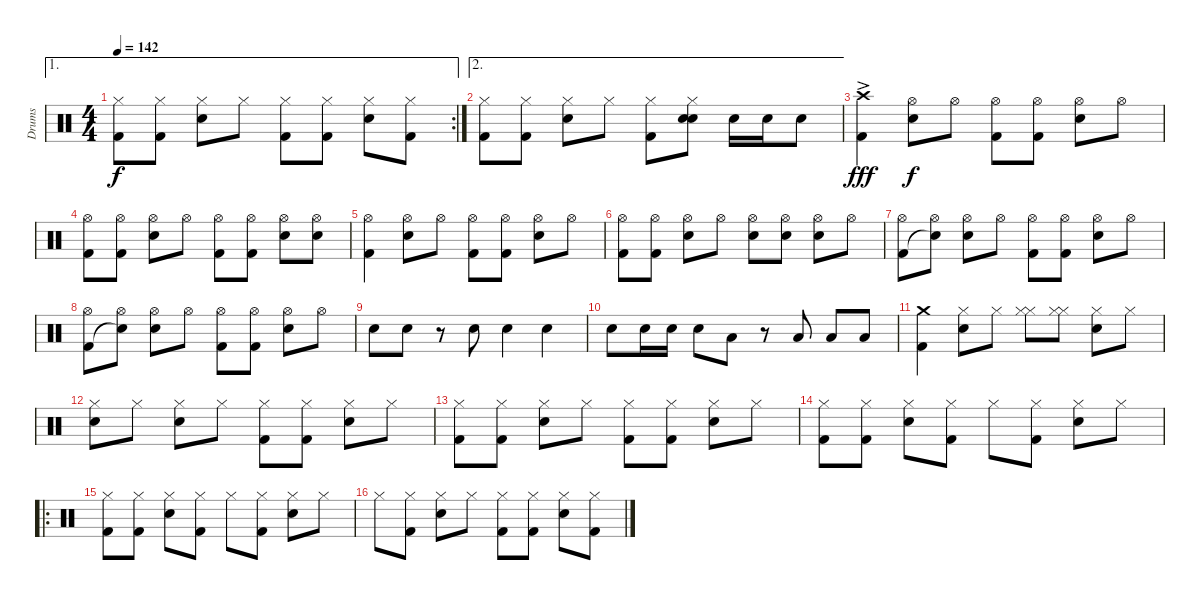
\track ("Drums" "Drums") {instrument percussion}
\staff {score}
\articulation defaults
\ae 1
\rc 2
\ts (4 4)
\tempo 142
\clef neutral
\ks c
("Hi-Hat (closed)" "Kick (hit) 2").8{dy f} ("Hi-Hat (closed)" "Kick (hit) 2").8 ("Hi-Hat (closed)" "Snare (hit) 2").8 "Hi-Hat (closed)".8 ("Hi-Hat (closed)" "Kick (hit) 2").8 ("Hi-Hat (closed)" "Kick (hit) 2").8 ("Hi-Hat (closed)" "Snare (hit) 2").8 ("Hi-Hat (closed)" "Kick (hit) 2").8 |
\ae 2
("Hi-Hat (closed)" "Kick (hit) 2").8 ("Hi-Hat (closed)" "Kick (hit) 2").8 ("Hi-Hat (closed)" "Snare (hit) 2").8 "Hi-Hat (closed)".8 ("Hi-Hat (closed)" "Kick (hit) 2").8 ("Hi-Hat (closed)" "Snare (hit) 2" "Snare (hit)").8 "Snare (hit) 2".16 "Snare (hit) 2".16 "Snare (hit) 2".8 |
("Crash high (hit)"{ac} "Kick (hit) 2"{ac}).4{dy fff} ("Hi-Hat (open)" "Snare (hit) 2").8{dy f} "Hi-Hat (open)".8 ("Hi-Hat (open)" "Kick (hit) 2").8 ("Hi-Hat (open)" "Kick (hit) 2").8 ("Hi-Hat (open)" "Snare (hit) 2").8 "Hi-Hat (open)".8 |
("Hi-Hat (open)" "Kick (hit) 2").8 ("Hi-Hat (open)" "Kick (hit) 2").8 ("Hi-Hat (open)" "Snare (hit) 2").8 "Hi-Hat (open)".8 ("Hi-Hat (open)" "Kick (hit) 2").8 ("Hi-Hat (open)" "Kick (hit) 2").8 ("Hi-Hat (open)" "Snare (hit) 2").8 ("Hi-Hat (open)" "Snare (hit) 2").8 |
("Hi-Hat (open)" "Kick (hit) 2").4 ("Hi-Hat (open)" "Snare (hit) 2").8 "Hi-Hat (open)".8 ("Hi-Hat (open)" "Kick (hit) 2").8 ("Hi-Hat (open)" "Kick (hit) 2").8 ("Hi-Hat (open)" "Snare (hit) 2").8 "Hi-Hat (open)".8 |
("Hi-Hat (open)" "Kick (hit) 2").8 ("Hi-Hat (open)" "Kick (hit) 2").8 ("Hi-Hat (open)" "Snare (hit) 2").8 "Hi-Hat (open)".8 ("Hi-Hat (open)" "Snare (hit) 2").8 ("Hi-Hat (open)" "Snare (hit) 2").8 ("Hi-Hat (open)" "Snare (hit) 2").8 "Hi-Hat (open)".8 |
("Hi-Hat (open)" "Kick (hit) 2").8 ("Hi-Hat (open)" "Snare (hit)"{t}).8 ("Hi-Hat (open)" "Snare (hit) 2").8 "Hi-Hat (open)".8 ("Hi-Hat (open)" "Kick (hit) 2").8 ("Hi-Hat (open)" "Kick (hit) 2").8 ("Hi-Hat (open)" "Snare (hit) 2").8 "Hi-Hat (open)".8 |
("Hi-Hat (open)" "Kick (hit) 2").8 ("Hi-Hat (open)" "Snare (hit)"{t}).8 ("Hi-Hat (open)" "Snare (hit) 2").8 "Hi-Hat (open)".8 ("Hi-Hat (open)" "Kick (hit) 2").8 ("Hi-Hat (open)" "Kick (hit) 2").8 ("Hi-Hat (open)" "Snare (hit) 2").8 "Hi-Hat (open)".8 |
"Snare (hit) 2".8 "Snare (hit) 2".8 r.8 "Snare (hit) 2".8 "Snare (hit) 2".4 "Snare (hit) 2".4 |
"Snare (hit) 2".8 "Snare (hit) 2".16 "Snare (hit) 2".16 "Snare (hit) 2".8 "Low Tom (hit)".8 r.8 "Low Tom (hit)".8 "Low Tom (hit)".8 "Low Tom (hit)".8 |
("Crash medium (hit)" "Kick (hit) 2").4 ("Hi-Hat (closed)" "Snare (hit) 2").8 "Hi-Hat (closed)".8 ("Hi-Hat (closed)" "Hi-Hat (closed)").8 ("Hi-Hat (closed)" "Hi-Hat (closed)").8 ("Hi-Hat (closed)" "Snare (hit) 2").8 "Hi-Hat (closed)".8 |
("Hi-Hat (closed)" "Snare (hit) 2").8 "Hi-Hat (closed)".8 ("Hi-Hat (closed)" "Snare (hit) 2").8 "Hi-Hat (closed)".8 ("Hi-Hat (closed)" "Kick (hit) 2").8 ("Hi-Hat (closed)" "Kick (hit) 2").8 ("Hi-Hat (closed)" "Snare (hit) 2").8 "Hi-Hat (closed)".8 |
("Hi-Hat (closed)" "Kick (hit) 2").8 ("Hi-Hat (closed)" "Kick (hit) 2").8 ("Hi-Hat (closed)" "Snare (hit) 2").8 "Hi-Hat (closed)".8 ("Hi-Hat (closed)" "Kick (hit) 2").8 ("Hi-Hat (closed)" "Kick (hit) 2").8 ("Hi-Hat (closed)" "Snare (hit) 2").8 "Hi-Hat (closed)".8 |
("Hi-Hat (closed)" "Kick (hit) 2").8 ("Hi-Hat (closed)" "Kick (hit) 2").8 ("Hi-Hat (closed)" "Snare (hit) 2").8 ("Hi-Hat (closed)" "Kick (hit) 2").8 "Hi-Hat (closed)".8 ("Hi-Hat (closed)" "Kick (hit) 2").8 ("Hi-Hat (closed)" "Snare (hit) 2").8 "Hi-Hat (closed)".8 |
\ro
("Hi-Hat (closed)" "Kick (hit) 2").8 ("Hi-Hat (closed)" "Kick (hit) 2").8 ("Hi-Hat (closed)" "Snare (hit) 2").8 ("Hi-Hat (closed)" "Kick (hit) 2").8 "Hi-Hat (closed)".8 ("Hi-Hat (closed)" "Kick (hit) 2").8 ("Hi-Hat (closed)" "Snare (hit) 2").8 "Hi-Hat (closed)".8 |
"Hi-Hat (closed)".8 ("Hi-Hat (closed)" "Kick (hit) 2").8 ("Hi-Hat (closed)" "Snare (hit) 2").8 "Hi-Hat (closed)".8 ("Hi-Hat (closed)" "Kick (hit) 2").8 ("Hi-Hat (closed)" "Kick (hit) 2").8 ("Hi-Hat (closed)" "Snare (hit) 2").8 ("Hi-Hat (closed)" "Kick (hit) 2").8
